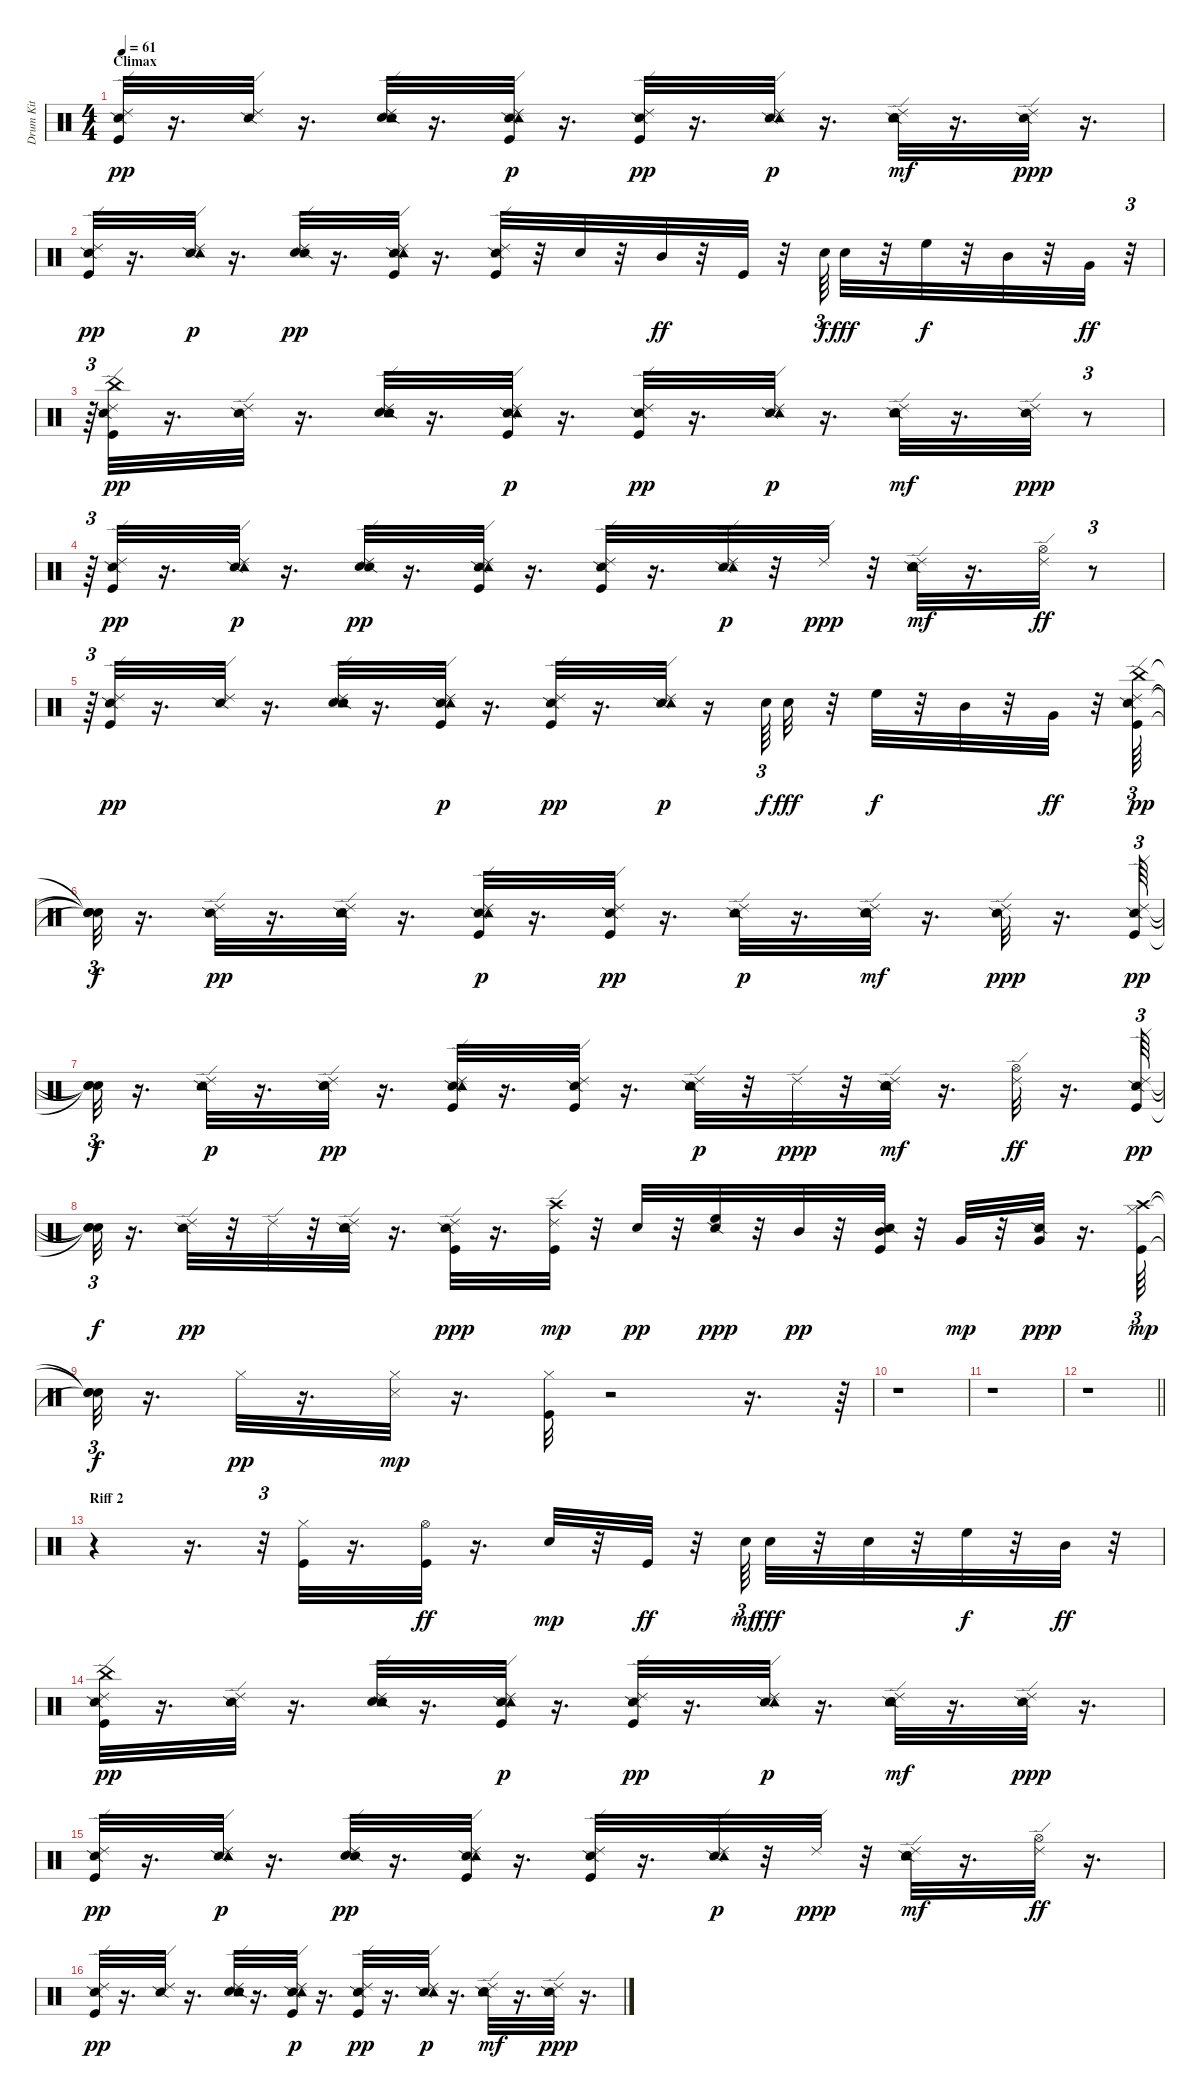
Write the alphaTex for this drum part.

\track ("Drum Kit" "Drum Kit") {instrument percussion}
\staff {score}
\articulation defaults
\ts (4 4)
\section ("" "Climax")
\tempo 61
\clef neutral
\ks c
("Kick (hit)" "Ride (edge) 2" "Snare (side stick) 2").32{dy pp} r.16{d} ("Ride (edge) 2" "Snare (side stick) 2").32 r.16{d} ("Snare (hit) 2" "Ride (edge) 2" "Snare (side stick) 2" "Tambourine (hit)").32 r.16{d} ("Kick (hit)" "Ride (edge) 2" "Snare (side stick) 2" "Tambourine (hit)").32{dy p} r.16{d} ("Kick (hit)" "Ride (edge) 2" "Snare (side stick) 2").32{dy pp} r.16{d} ("Ride (edge) 2" "Snare (side stick) 2" "Tambourine (hit)").32{dy p} r.16{d} ("Snare (hit) 2" "Ride (edge) 2" "Snare (side stick) 2" "Tambourine (hit)").32{dy mf} r.16{d} ("Ride (edge) 2" "Snare (side stick) 2").32{dy ppp} r.16{d} |
("Kick (hit)" "Ride (edge) 2" "Snare (side stick) 2").32{dy pp} r.16{d} ("Ride (edge) 2" "Snare (side stick) 2" "Tambourine (hit)").32{dy p} r.16{d} ("Snare (hit) 2" "Ride (edge) 2" "Snare (side stick) 2").32{dy pp} r.16{d} ("Kick (hit)" "Ride (edge) 2" "Snare (side stick) 2" "Tambourine (hit)").32 r.16{d} ("Kick (hit)" "Ride (edge) 2" "Snare (side stick) 2").32 r.32 "Hand Clap (hit)".32 r.32 "Mid Tom (hit)".32{dy ff} r.32 "Kick (hit)".32 r.32 "Snare (hit) 2".64{tu (3 2) dy f} "Electric Snare (hit)".32{dy fff} r.32 "High Floor Tom (hit)".32{dy f} r.32 "Mid Tom (hit)".32 r.32 "Very Low Tom (hit)".32{dy ff} r.32{tu (3 2)} |
r.64{tu (3 2)} ("China (hit)" "Kick (hit)" "Ride (edge) 2" "Snare (side stick) 2").32{dy pp} r.16{d} ("Ride (edge) 2" "Snare (side stick) 2").32 r.16{d} ("Snare (hit) 2" "Ride (edge) 2" "Snare (side stick) 2" "Tambourine (hit)").32 r.16{d} ("Kick (hit)" "Ride (edge) 2" "Snare (side stick) 2" "Tambourine (hit)").32{dy p} r.16{d} ("Kick (hit)" "Ride (edge) 2" "Snare (side stick) 2").32{dy pp} r.16{d} ("Ride (edge) 2" "Snare (side stick) 2" "Tambourine (hit)").32{dy p} r.16{d} ("Snare (hit) 2" "Ride (edge) 2" "Snare (side stick) 2" "Tambourine (hit)").32{dy mf} r.16{d} ("Ride (edge) 2" "Snare (side stick) 2").32{dy ppp} r.8{tu (3 2)} |
r.64{tu (3 2)} ("Kick (hit)" "Ride (edge) 2" "Snare (side stick) 2").32{dy pp} r.16{d} ("Ride (edge) 2" "Snare (side stick) 2" "Tambourine (hit)").32{dy p} r.16{d} ("Snare (hit) 2" "Ride (edge) 2" "Snare (side stick) 2").32{dy pp} r.16{d} ("Kick (hit)" "Ride (edge) 2" "Snare (side stick) 2" "Tambourine (hit)").32 r.16{d} ("Kick (hit)" "Ride (edge) 2" "Snare (side stick) 2").32 r.16{d} ("Ride (edge) 2" "Snare (side stick) 2" "Tambourine (hit)").32{dy p} r.32 "Ride (edge) 2".32{dy ppp} r.32 ("Snare (hit) 2" "Ride (edge) 2" "Snare (side stick) 2" "Tambourine (hit)").32{dy mf} r.16{d} ("Ride (edge) 2" "Hi-Hat (open)").32{dy ff} r.8{tu (3 2)} |
r.64{tu (3 2)} ("Kick (hit)" "Ride (edge) 2" "Snare (side stick) 2").32{dy pp} r.16{d} ("Ride (edge) 2" "Snare (side stick) 2").32 r.16{d} ("Snare (hit) 2" "Ride (edge) 2" "Snare (side stick) 2" "Tambourine (hit)").32 r.16{d} ("Kick (hit)" "Ride (edge) 2" "Snare (side stick) 2" "Tambourine (hit)").32{dy p} r.16{d} ("Kick (hit)" "Ride (edge) 2" "Snare (side stick) 2").32{dy pp} r.16{d} ("Ride (edge) 2" "Snare (side stick) 2" "Tambourine (hit)").32{dy p} r.16 "Snare (hit) 2".64{tu (3 2) dy f} "Electric Snare (hit)".32{dy fff} r.32 "High Floor Tom (hit)".32{dy f} r.32 "Mid Tom (hit)".32 r.32 "Very Low Tom (hit)".32{dy ff} r.32 ("China (hit)" "Kick (hit)" "Ride (edge) 2" "Snare (side stick) 2").64{tu (3 2) dy pp} |
("Snare (hit)"{t} "Snare (hit)"{t} "Snare (hit)"{t} "Snare (hit)"{t}).32{tu (3 2) dy f} r.16{d} ("Ride (edge) 2" "Snare (side stick) 2").32{dy pp} r.16{d} ("Snare (hit) 2" "Ride (edge) 2" "Snare (side stick) 2" "Tambourine (hit)").32 r.16{d} ("Kick (hit)" "Ride (edge) 2" "Snare (side stick) 2" "Tambourine (hit)").32{dy p} r.16{d} ("Kick (hit)" "Ride (edge) 2" "Snare (side stick) 2").32{dy pp} r.16{d} ("Ride (edge) 2" "Snare (side stick) 2" "Tambourine (hit)").32{dy p} r.16{d} ("Snare (hit) 2" "Ride (edge) 2" "Snare (side stick) 2" "Tambourine (hit)").32{dy mf} r.16{d} ("Ride (edge) 2" "Snare (side stick) 2").32{dy ppp} r.16{d} ("Kick (hit)" "Ride (edge) 2" "Snare (side stick) 2").64{tu (3 2) dy pp} |
("Snare (hit)"{t} "Snare (hit)"{t} "Snare (hit)"{t}).32{tu (3 2) dy f} r.16{d} ("Ride (edge) 2" "Snare (side stick) 2" "Tambourine (hit)").32{dy p} r.16{d} ("Snare (hit) 2" "Ride (edge) 2" "Snare (side stick) 2").32{dy pp} r.16{d} ("Kick (hit)" "Ride (edge) 2" "Snare (side stick) 2" "Tambourine (hit)").32 r.16{d} ("Kick (hit)" "Ride (edge) 2" "Snare (side stick) 2").32 r.16{d} ("Ride (edge) 2" "Snare (side stick) 2" "Tambourine (hit)").32{dy p} r.32 "Ride (edge) 2".32{dy ppp} r.32 ("Snare (hit) 2" "Ride (edge) 2" "Snare (side stick) 2" "Tambourine (hit)").32{dy mf} r.16{d} ("Ride (edge) 2" "Hi-Hat (open)").32{dy ff} r.16{d} ("Kick (hit)" "Ride (edge) 2" "Snare (side stick) 2").64{tu (3 2) dy pp} |
("Snare (hit)"{t} "Snare (hit)"{t} "Snare (hit)"{t}).32{tu (3 2) dy f} r.16{d} ("Ride (edge) 2" "Snare (side stick) 2").32{dy pp} r.32 "Ride (edge) 2".32 r.32 ("Tambourine (hit)" "Snare (hit) 2" "Ride (edge) 2" "Snare (side stick) 2").32 r.16{d} ("Ride (edge) 2" "Kick (hit)" "Snare (side stick) 2").32{dy ppp} r.16{d} ("Ride (edge) 2" "Kick (hit)" "Crash high (hit)").32{dy mp} r.32 "Hand Clap (hit)".32{dy pp} r.32 ("High Floor Tom (hit)" "Snare (side stick) 2").32{dy ppp} r.32 "Mid Tom (hit)".32{dy pp} r.32 ("Kick (hit)" "Mid Tom (hit)" "Snare (side stick) 2").32 r.32 "Very Low Tom (hit)".32{dy mp} r.32 ("Very Low Tom (hit)" "Snare (side stick) 2").32{dy ppp} r.16{d} ("Crash high (hit)" "Kick (hit)" "Hi-Hat (closed)").64{tu (3 2) dy mp} |
("Snare (hit)"{t} "Snare (hit)"{t} "Snare (hit)"{t}).32{tu (3 2) dy f} r.16{d} "Hi-Hat (closed)".32{dy pp} r.16{d} ("Snare (side stick) 3" "Hi-Hat (closed)").32{dy mp} r.16{d} ("Hi-Hat (closed)" "Kick (hit)").32 r.2 r.16{d} r.64{tu (3 2)} |
r.1 |
r.1 |
\barLineRight lightlight
r.1 |
\section ("" "Riff 2")
r.4 r.16{d} r.32{tu (3 2)} ("Kick (hit)" "Hi-Hat (closed)").32 r.16{d} ("Hi-Hat (open)" "Kick (hit)").32{dy ff} r.16{d} "Hand Clap (hit)".32{dy mp} r.32 "Kick (hit)".32{dy ff} r.32 "Snare (hit) 2".64{tu (3 2) dy mf} "Electric Snare (hit)".32{dy fff} r.32 "Snare (hit) 2".32 r.32 "High Floor Tom (hit)".32{dy f} r.32 "Mid Tom (hit)".32{dy ff} r.32 |
("China (hit)" "Kick (hit)" "Ride (edge) 2" "Snare (side stick) 2").32{dy pp} r.16{d} ("Ride (edge) 2" "Snare (side stick) 2").32 r.16{d} ("Snare (hit) 2" "Ride (edge) 2" "Snare (side stick) 2" "Tambourine (hit)").32 r.16{d} ("Kick (hit)" "Ride (edge) 2" "Snare (side stick) 2" "Tambourine (hit)").32{dy p} r.16{d} ("Kick (hit)" "Ride (edge) 2" "Snare (side stick) 2").32{dy pp} r.16{d} ("Ride (edge) 2" "Snare (side stick) 2" "Tambourine (hit)").32{dy p} r.16{d} ("Snare (hit) 2" "Ride (edge) 2" "Snare (side stick) 2" "Tambourine (hit)").32{dy mf} r.16{d} ("Ride (edge) 2" "Snare (side stick) 2").32{dy ppp} r.16{d} |
("Kick (hit)" "Ride (edge) 2" "Snare (side stick) 2").32{dy pp} r.16{d} ("Ride (edge) 2" "Snare (side stick) 2" "Tambourine (hit)").32{dy p} r.16{d} ("Snare (hit) 2" "Ride (edge) 2" "Snare (side stick) 2").32{dy pp} r.16{d} ("Kick (hit)" "Ride (edge) 2" "Snare (side stick) 2" "Tambourine (hit)").32 r.16{d} ("Kick (hit)" "Ride (edge) 2" "Snare (side stick) 2").32 r.16{d} ("Ride (edge) 2" "Snare (side stick) 2" "Tambourine (hit)").32{dy p} r.32 "Ride (edge) 2".32{dy ppp} r.32 ("Snare (hit) 2" "Ride (edge) 2" "Snare (side stick) 2" "Tambourine (hit)").32{dy mf} r.16{d} ("Ride (edge) 2" "Hi-Hat (open)").32{dy ff} r.16{d} |
("Kick (hit)" "Ride (edge) 2" "Snare (side stick) 2").32{dy pp} r.16{d} ("Ride (edge) 2" "Snare (side stick) 2").32 r.16{d} ("Snare (hit) 2" "Ride (edge) 2" "Snare (side stick) 2" "Tambourine (hit)").32 r.16{d} ("Kick (hit)" "Ride (edge) 2" "Snare (side stick) 2" "Tambourine (hit)").32{dy p} r.16{d} ("Kick (hit)" "Ride (edge) 2" "Snare (side stick) 2").32{dy pp} r.16{d} ("Ride (edge) 2" "Snare (side stick) 2" "Tambourine (hit)").32{dy p} r.16{d} ("Snare (hit) 2" "Ride (edge) 2" "Snare (side stick) 2" "Tambourine (hit)").32{dy mf} r.16{d} ("Ride (edge) 2" "Snare (side stick) 2").32{dy ppp} r.16{d}
